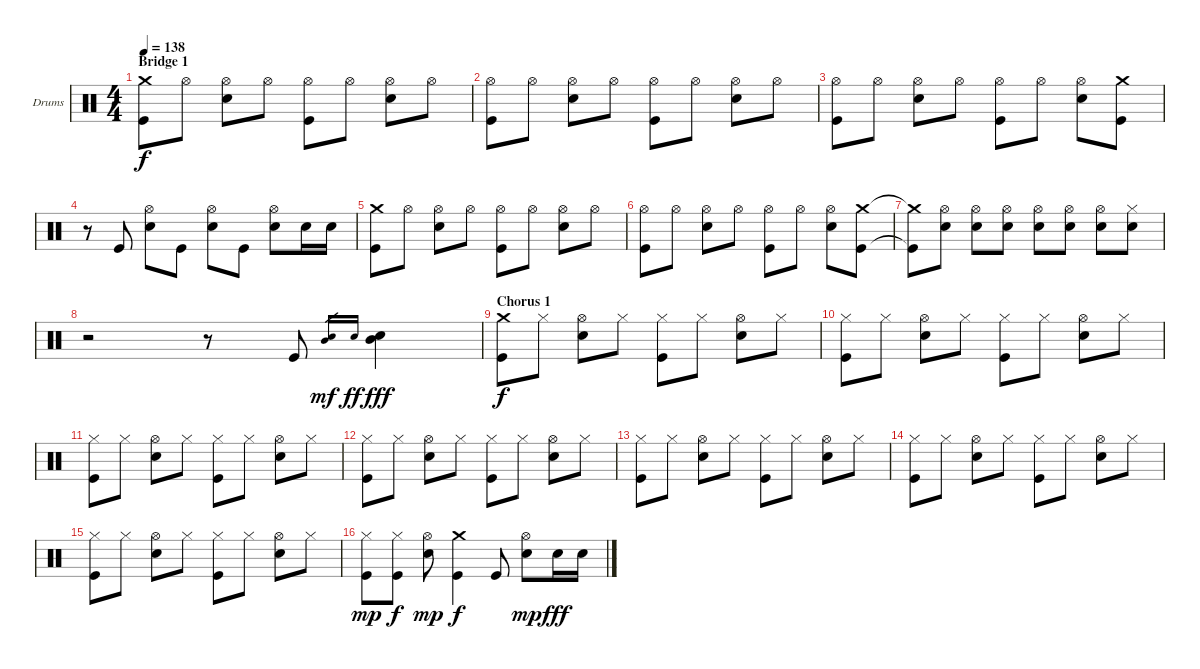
\bracketExtendMode groupsimilarinstruments
\firstSystemTrackNameOrientation horizontal
\otherSystemsTrackNameOrientation horizontal
\track ("Drumkit" "Drums") {instrument percussion}
\staff {score}
\articulation defaults
\ts (4 4)
\section ("" "Bridge 1")
\tempo 138
\clef neutral
\ks c
("Crash medium (hit)" "Kick (hit)").8{dy f} "Hi-Hat (open)".8 ("Hi-Hat (open)" "Snare (hit) 2").8 "Hi-Hat (open)".8 ("Hi-Hat (open)" "Kick (hit)").8 "Hi-Hat (open)".8 ("Hi-Hat (open)" "Snare (hit) 2").8 "Hi-Hat (open)".8 |
("Hi-Hat (open)" "Kick (hit)").8 "Hi-Hat (open)".8 ("Hi-Hat (open)" "Snare (hit) 2").8 "Hi-Hat (open)".8 ("Hi-Hat (open)" "Kick (hit)").8 "Hi-Hat (open)".8 ("Hi-Hat (open)" "Snare (hit) 2").8 "Hi-Hat (open)".8 |
("Hi-Hat (open)" "Kick (hit)").8 "Hi-Hat (open)".8 ("Hi-Hat (open)" "Snare (hit) 2").8 "Hi-Hat (open)".8 ("Hi-Hat (open)" "Kick (hit)").8 "Hi-Hat (open)".8 ("Hi-Hat (open)" "Snare (hit) 2").8 ("Crash medium (hit)" "Kick (hit)").8 |
r.8 "Kick (hit)".8 ("Hi-Hat (open)" "Snare (hit) 2").8 "Kick (hit)".8 ("Hi-Hat (open)" "Snare (hit) 2").8 "Kick (hit)".8 ("Hi-Hat (open)" "Snare (hit) 2").8 "Snare (hit) 2".16 "Snare (hit) 2".16 |
("Crash medium (hit)" "Kick (hit)").8 "Hi-Hat (open)".8 ("Hi-Hat (open)" "Snare (hit) 2").8 "Hi-Hat (open)".8 ("Hi-Hat (open)" "Kick (hit)").8 "Hi-Hat (open)".8 ("Hi-Hat (open)" "Snare (hit) 2").8 "Hi-Hat (open)".8 |
("Hi-Hat (open)" "Kick (hit)").8 "Hi-Hat (open)".8 ("Hi-Hat (open)" "Snare (hit) 2").8 "Hi-Hat (open)".8 ("Hi-Hat (open)" "Kick (hit)").8 "Hi-Hat (open)".8 ("Hi-Hat (open)" "Snare (hit) 2").8 ("Crash medium (hit)" "Kick (hit)").8 |
("Crash medium (hit)"{t} "Kick (hit)"{t}).8 ("Hi-Hat (open)" "Snare (hit) 2").8 ("Hi-Hat (open)" "Snare (hit) 2").8 ("Hi-Hat (open)" "Snare (hit) 2").8 ("Hi-Hat (open)" "Snare (hit) 2").8 ("Hi-Hat (open)" "Snare (hit) 2").8 ("Hi-Hat (open)" "Snare (hit) 2").8 ("Hi-Hat (closed)" "Snare (hit) 2").8 |
r.2 r.8 "Kick (hit)".8 ("Snare (hit) 2" "Mid Tom (hit)").16{gr dy mf} "Snare (hit) 2".16{gr dy ff} ("Snare (hit) 2" "Mid Tom (hit)").4{dy fff} |
\section ("" "Chorus 1")
("Crash medium (hit)" "Kick (hit)").8{dy f} "Hi-Hat (closed)".8 ("Hi-Hat (open)" "Snare (hit) 2").8 "Hi-Hat (closed)".8 ("Hi-Hat (closed)" "Kick (hit)").8 "Hi-Hat (closed)".8 ("Hi-Hat (open)" "Snare (hit) 2").8 "Hi-Hat (closed)".8 |
("Hi-Hat (closed)" "Kick (hit)").8 "Hi-Hat (closed)".8 ("Hi-Hat (open)" "Snare (hit) 2").8 "Hi-Hat (closed)".8 ("Hi-Hat (closed)" "Kick (hit)").8 "Hi-Hat (closed)".8 ("Hi-Hat (open)" "Snare (hit) 2").8 "Hi-Hat (closed)".8 |
("Hi-Hat (closed)" "Kick (hit)").8 "Hi-Hat (closed)".8 ("Hi-Hat (open)" "Snare (hit) 2").8 "Hi-Hat (closed)".8 ("Hi-Hat (closed)" "Kick (hit)").8 "Hi-Hat (closed)".8 ("Hi-Hat (open)" "Snare (hit) 2").8 "Hi-Hat (closed)".8 |
("Hi-Hat (closed)" "Kick (hit)").8 "Hi-Hat (closed)".8 ("Hi-Hat (open)" "Snare (hit) 2").8 "Hi-Hat (closed)".8 ("Hi-Hat (closed)" "Kick (hit)").8 "Hi-Hat (closed)".8 ("Hi-Hat (open)" "Snare (hit) 2").8 "Hi-Hat (closed)".8 |
("Hi-Hat (closed)" "Kick (hit)").8 "Hi-Hat (closed)".8 ("Hi-Hat (open)" "Snare (hit) 2").8 "Hi-Hat (closed)".8 ("Hi-Hat (closed)" "Kick (hit)").8 "Hi-Hat (closed)".8 ("Hi-Hat (open)" "Snare (hit) 2").8 "Hi-Hat (closed)".8 |
("Hi-Hat (closed)" "Kick (hit)").8 "Hi-Hat (closed)".8 ("Hi-Hat (open)" "Snare (hit) 2").8 "Hi-Hat (closed)".8 ("Hi-Hat (closed)" "Kick (hit)").8 "Hi-Hat (closed)".8 ("Hi-Hat (open)" "Snare (hit) 2").8 "Hi-Hat (closed)".8 |
("Hi-Hat (closed)" "Kick (hit)").8 "Hi-Hat (closed)".8 ("Hi-Hat (open)" "Snare (hit) 2").8 "Hi-Hat (closed)".8 ("Hi-Hat (closed)" "Kick (hit)").8 "Hi-Hat (closed)".8 ("Hi-Hat (open)" "Snare (hit) 2").8 "Hi-Hat (closed)".8 |
("Hi-Hat (closed)" "Kick (hit)").8{dy mp} ("Hi-Hat (closed)" "Kick (hit)").8{dy f} ("Hi-Hat (open)" "Snare (hit) 2").8{dy mp} ("Crash medium (hit)" "Kick (hit)").4{dy f} "Kick (hit)".8 ("Hi-Hat (open)" "Snare (hit) 2").8{dy mp} "Snare (hit) 2".16{dy fff} "Snare (hit) 2".16
